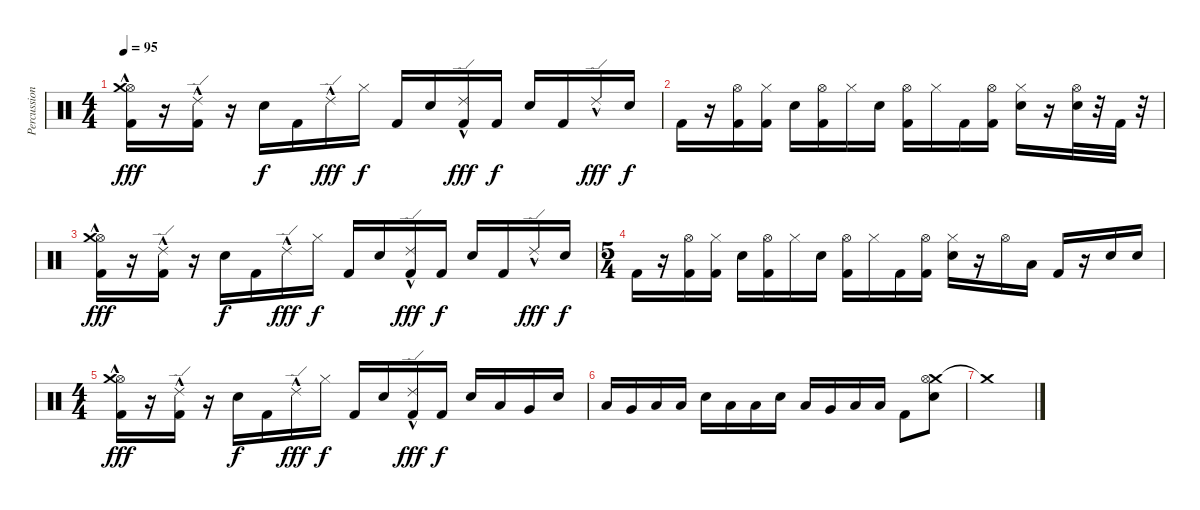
\track ("Percussion" "Percussion") {instrument percussion}
\staff {score}
\articulation defaults
\ts (4 4)
\tempo 95
\clef neutral
\ks c
("Hi-Hat (open)" "Crash medium (hit)"{hac} "Kick (hit) 2").16{dy fff} r.16 ("Ride (edge) 2"{hac} "Kick (hit) 2").16 r.16 "Electric Snare (hit)".16{dy f} "Kick (hit) 2".16 "Ride (edge) 2"{hac}.16{dy fff} "Hi-Hat (closed)".16{dy f} "Kick (hit) 2".16 "Electric Snare (hit)".16 ("Ride (edge) 2"{hac} "Kick (hit) 2").16{dy fff} "Kick (hit) 2".16{dy f} "Electric Snare (hit)".16 "Kick (hit) 2".16 "Ride (edge) 2"{hac}.16{dy fff} "Electric Snare (hit)".16{dy f} |
"Kick (hit) 2".16 r.16 ("Hi-Hat (open)" "Kick (hit) 2").16 ("Hi-Hat (closed)" "Kick (hit) 2").16 "Electric Snare (hit)".16 ("Hi-Hat (open)" "Kick (hit) 2").16 "Hi-Hat (closed)".16 "Electric Snare (hit)".16 ("Hi-Hat (open)" "Kick (hit) 2").16 "Hi-Hat (closed)".16 "Kick (hit) 2".16 ("Hi-Hat (open)" "Kick (hit) 2").16 ("Hi-Hat (closed)" "Electric Snare (hit)").16 r.16 ("Hi-Hat (open)" "Electric Snare (hit)").32 r.32 "Kick (hit) 2".32 r.32 |
("Hi-Hat (open)" "Crash medium (hit)"{hac} "Kick (hit) 2").16{dy fff} r.16 ("Ride (edge) 2"{hac} "Kick (hit) 2").16 r.16 "Electric Snare (hit)".16{dy f} "Kick (hit) 2".16 "Ride (edge) 2"{hac}.16{dy fff} "Hi-Hat (closed)".16{dy f} "Kick (hit) 2".16 "Electric Snare (hit)".16 ("Ride (edge) 2"{hac} "Kick (hit) 2").16{dy fff} "Kick (hit) 2".16{dy f} "Electric Snare (hit)".16 "Kick (hit) 2".16 "Ride (edge) 2"{hac}.16{dy fff} "Electric Snare (hit)".16{dy f} |
\ts (5 4)
"Kick (hit) 2".16 r.16 ("Hi-Hat (open)" "Kick (hit) 2").16 ("Hi-Hat (closed)" "Kick (hit) 2").16 "Electric Snare (hit)".16 ("Hi-Hat (open)" "Kick (hit) 2").16 "Hi-Hat (closed)".16 "Electric Snare (hit)".16 ("Hi-Hat (open)" "Kick (hit) 2").16 "Hi-Hat (closed)".16 "Kick (hit) 2".16 ("Hi-Hat (open)" "Kick (hit) 2").16 ("Hi-Hat (closed)" "Electric Snare (hit)").16 r.16 "Hi-Hat (open)".16 "Low Tom (hit)".16 "Kick (hit) 2".16 r.16 "Electric Snare (hit)".16 "Electric Snare (hit)".16 |
\ts (4 4)
("Hi-Hat (open)" "Crash medium (hit)"{hac} "Kick (hit) 2").16{dy fff} r.16 ("Ride (edge) 2"{hac} "Kick (hit) 2").16 r.16 "Electric Snare (hit)".16{dy f} "Kick (hit) 2".16 "Ride (edge) 2"{hac}.16{dy fff} "Hi-Hat (closed)".16{dy f} "Kick (hit) 2".16 "Electric Snare (hit)".16 ("Ride (edge) 2"{hac} "Kick (hit) 2").16{dy fff} "Kick (hit) 2".16{dy f} "Electric Snare (hit)".16 "Low Tom (hit)".16 "Very Low Tom (hit)".16 "Electric Snare (hit)".16 |
"Low Tom (hit)".16 "Very Low Tom (hit)".16 "Low Floor Tom (hit)".16 "Low Floor Tom (hit)".16 "Electric Snare (hit)".16 "Low Tom (hit)".16 "Low Tom (hit)".16 "Electric Snare (hit)".16 "Low Tom (hit)".16 "Very Low Tom (hit)".16 "Low Floor Tom (hit)".16 "Low Floor Tom (hit)".16 "Kick (hit) 2".8 ("Crash medium (hit)" "Electric Snare (hit)" "Hi-Hat (open)").8 |
"Crash medium (hit)"{t}.1
